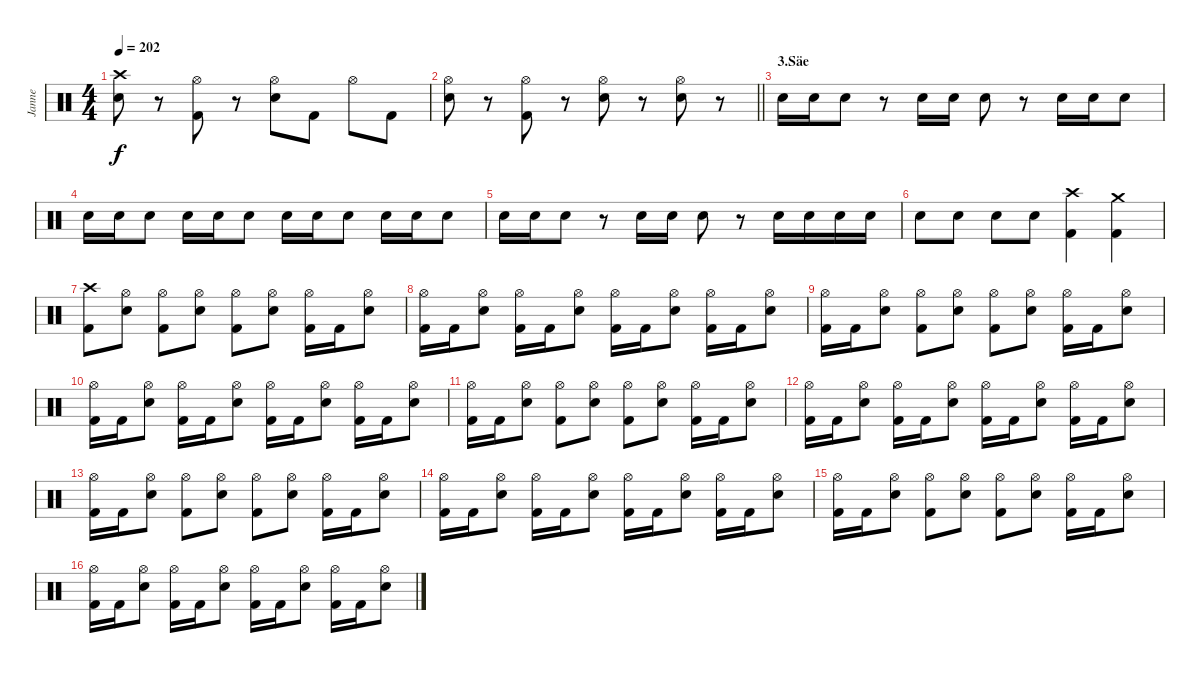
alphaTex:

\track ("Janne" "Janne") {instrument percussion}
\staff {score}
\articulation defaults
\ts (4 4)
\tempo 202
\clef neutral
\ks c
("Crash high (hit)" "Electric Snare (hit)").8{dy f} r.8 ("Hi-Hat (open)" "Kick (hit) 2").8 r.8 ("Hi-Hat (open)" "Electric Snare (hit)").8 "Kick (hit) 2".8 "Hi-Hat (open)".8 "Kick (hit) 2".8 |
\barLineRight lightlight
("Hi-Hat (open)" "Electric Snare (hit)").8 r.8 ("Hi-Hat (open)" "Kick (hit) 2").8 r.8 ("Hi-Hat (open)" "Electric Snare (hit)").8 r.8 ("Hi-Hat (open)" "Electric Snare (hit)").8 r.8 |
\section ("" "3.Säe")
"Electric Snare (hit)".16 "Electric Snare (hit)".16 "Electric Snare (hit)".8 r.8 "Electric Snare (hit)".16 "Electric Snare (hit)".16 "Electric Snare (hit)".8 r.8 "Electric Snare (hit)".16 "Electric Snare (hit)".16 "Electric Snare (hit)".8 |
"Electric Snare (hit)".16 "Electric Snare (hit)".16 "Electric Snare (hit)".8 "Electric Snare (hit)".16 "Electric Snare (hit)".16 "Electric Snare (hit)".8 "Electric Snare (hit)".16 "Electric Snare (hit)".16 "Electric Snare (hit)".8 "Electric Snare (hit)".16 "Electric Snare (hit)".16 "Electric Snare (hit)".8 |
"Electric Snare (hit)".16 "Electric Snare (hit)".16 "Electric Snare (hit)".8 r.8 "Electric Snare (hit)".16 "Electric Snare (hit)".16 "Electric Snare (hit)".8 r.8 "Electric Snare (hit)".16 "Electric Snare (hit)".16 "Electric Snare (hit)".16 "Electric Snare (hit)".16 |
"Electric Snare (hit)".8 "Electric Snare (hit)".8 "Electric Snare (hit)".8 "Electric Snare (hit)".8 ("Crash high (hit)" "Kick (hit) 2").4 ("Crash medium (hit)" "Kick (hit) 2").4 |
("Crash high (hit)" "Kick (hit) 2").8 ("Hi-Hat (open)" "Electric Snare (hit)").8 ("Hi-Hat (open)" "Kick (hit) 2").8 ("Hi-Hat (open)" "Electric Snare (hit)").8 ("Hi-Hat (open)" "Kick (hit) 2").8 ("Hi-Hat (open)" "Electric Snare (hit)").8 ("Hi-Hat (open)" "Kick (hit) 2").16 "Kick (hit) 2".16 ("Hi-Hat (open)" "Electric Snare (hit)").8 |
("Hi-Hat (open)" "Kick (hit) 2").16 "Kick (hit) 2".16 ("Hi-Hat (open)" "Electric Snare (hit)").8 ("Hi-Hat (open)" "Kick (hit) 2").16 "Kick (hit) 2".16 ("Hi-Hat (open)" "Electric Snare (hit)").8 ("Hi-Hat (open)" "Kick (hit) 2").16 "Kick (hit) 2".16 ("Hi-Hat (open)" "Electric Snare (hit)").8 ("Hi-Hat (open)" "Kick (hit) 2").16 "Kick (hit) 2".16 ("Hi-Hat (open)" "Electric Snare (hit)").8 |
("Hi-Hat (open)" "Kick (hit) 2").16 "Kick (hit) 2".16 ("Hi-Hat (open)" "Electric Snare (hit)").8 ("Hi-Hat (open)" "Kick (hit) 2").8 ("Hi-Hat (open)" "Electric Snare (hit)").8 ("Hi-Hat (open)" "Kick (hit) 2").8 ("Hi-Hat (open)" "Electric Snare (hit)").8 ("Hi-Hat (open)" "Kick (hit) 2").16 "Kick (hit) 2".16 ("Hi-Hat (open)" "Electric Snare (hit)").8 |
("Hi-Hat (open)" "Kick (hit) 2").16 "Kick (hit) 2".16 ("Hi-Hat (open)" "Electric Snare (hit)").8 ("Hi-Hat (open)" "Kick (hit) 2").16 "Kick (hit) 2".16 ("Hi-Hat (open)" "Electric Snare (hit)").8 ("Hi-Hat (open)" "Kick (hit) 2").16 "Kick (hit) 2".16 ("Hi-Hat (open)" "Electric Snare (hit)").8 ("Hi-Hat (open)" "Kick (hit) 2").16 "Kick (hit) 2".16 ("Hi-Hat (open)" "Electric Snare (hit)").8 |
("Hi-Hat (open)" "Kick (hit) 2").16 "Kick (hit) 2".16 ("Hi-Hat (open)" "Electric Snare (hit)").8 ("Hi-Hat (open)" "Kick (hit) 2").8 ("Hi-Hat (open)" "Electric Snare (hit)").8 ("Hi-Hat (open)" "Kick (hit) 2").8 ("Hi-Hat (open)" "Electric Snare (hit)").8 ("Hi-Hat (open)" "Kick (hit) 2").16 "Kick (hit) 2".16 ("Hi-Hat (open)" "Electric Snare (hit)").8 |
("Hi-Hat (open)" "Kick (hit) 2").16 "Kick (hit) 2".16 ("Hi-Hat (open)" "Electric Snare (hit)").8 ("Hi-Hat (open)" "Kick (hit) 2").16 "Kick (hit) 2".16 ("Hi-Hat (open)" "Electric Snare (hit)").8 ("Hi-Hat (open)" "Kick (hit) 2").16 "Kick (hit) 2".16 ("Hi-Hat (open)" "Electric Snare (hit)").8 ("Hi-Hat (open)" "Kick (hit) 2").16 "Kick (hit) 2".16 ("Hi-Hat (open)" "Electric Snare (hit)").8 |
("Hi-Hat (open)" "Kick (hit) 2").16 "Kick (hit) 2".16 ("Hi-Hat (open)" "Electric Snare (hit)").8 ("Hi-Hat (open)" "Kick (hit) 2").8 ("Hi-Hat (open)" "Electric Snare (hit)").8 ("Hi-Hat (open)" "Kick (hit) 2").8 ("Hi-Hat (open)" "Electric Snare (hit)").8 ("Hi-Hat (open)" "Kick (hit) 2").16 "Kick (hit) 2".16 ("Hi-Hat (open)" "Electric Snare (hit)").8 |
("Hi-Hat (open)" "Kick (hit) 2").16 "Kick (hit) 2".16 ("Hi-Hat (open)" "Electric Snare (hit)").8 ("Hi-Hat (open)" "Kick (hit) 2").16 "Kick (hit) 2".16 ("Hi-Hat (open)" "Electric Snare (hit)").8 ("Hi-Hat (open)" "Kick (hit) 2").16 "Kick (hit) 2".16 ("Hi-Hat (open)" "Electric Snare (hit)").8 ("Hi-Hat (open)" "Kick (hit) 2").16 "Kick (hit) 2".16 ("Hi-Hat (open)" "Electric Snare (hit)").8 |
("Hi-Hat (open)" "Kick (hit) 2").16 "Kick (hit) 2".16 ("Hi-Hat (open)" "Electric Snare (hit)").8 ("Hi-Hat (open)" "Kick (hit) 2").8 ("Hi-Hat (open)" "Electric Snare (hit)").8 ("Hi-Hat (open)" "Kick (hit) 2").8 ("Hi-Hat (open)" "Electric Snare (hit)").8 ("Hi-Hat (open)" "Kick (hit) 2").16 "Kick (hit) 2".16 ("Hi-Hat (open)" "Electric Snare (hit)").8 |
("Hi-Hat (open)" "Kick (hit) 2").16 "Kick (hit) 2".16 ("Hi-Hat (open)" "Electric Snare (hit)").8 ("Hi-Hat (open)" "Kick (hit) 2").16 "Kick (hit) 2".16 ("Hi-Hat (open)" "Electric Snare (hit)").8 ("Hi-Hat (open)" "Kick (hit) 2").16 "Kick (hit) 2".16 ("Hi-Hat (open)" "Electric Snare (hit)").8 ("Hi-Hat (open)" "Kick (hit) 2").16 "Kick (hit) 2".16 ("Hi-Hat (open)" "Electric Snare (hit)").8
